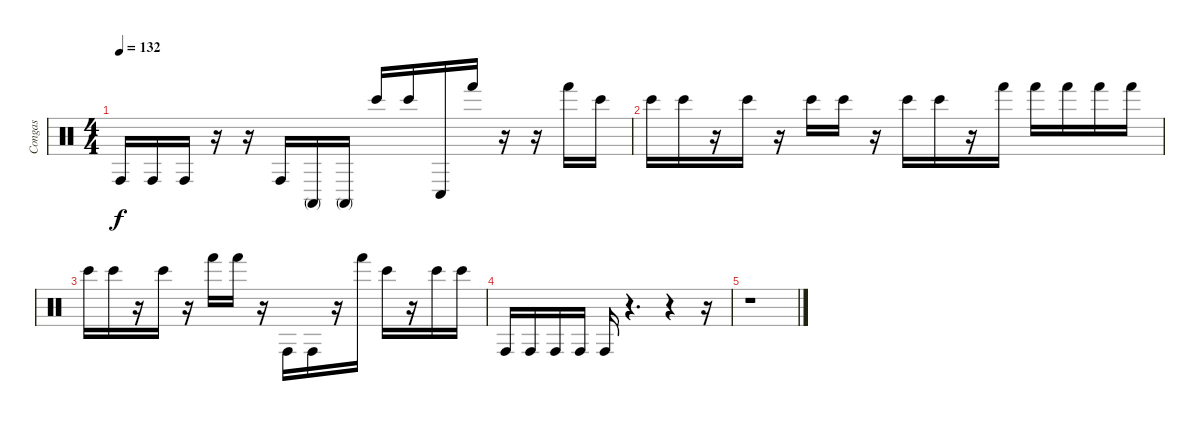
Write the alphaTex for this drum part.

\track ("Congas" "Congas") {instrument percussion}
\staff {score}
\articulation defaults
\ts (4 4)
\tempo 132
\clef neutral
\ks c "Conga high (hit)".16{dy f} "Conga high (hit)".16 "Conga high (hit)".16
r.16 r.16 "Conga high (hit)".16 "Conga high (mute)".16 "Conga high (mute)".16 "Bongo High (hit)".16 "Bongo High (hit)".16 "Conga low (hit)".16 "Hand (hit)".16 r.16 r.16 "Hand (hit)".16 "Bongo High (hit)".16 |
"Bongo High (hit)".16 "Bongo High (hit)".16 r.16 "Bongo High (hit)".16 r.16 "Bongo High (hit)".16 "Bongo High (hit)".16 r.16 "Bongo High (hit)".16 "Bongo High (hit)".16 r.16 "Hand (hit)".16 "Hand (hit)".16 "Hand (hit)".16 "Hand (hit)".16 "Hand (hit)".16 |
"Bongo High (hit)".16 "Bongo High (hit)".16 r.16 "Bongo High (hit)".16 r.16 "Hand (hit)".16 "Hand (hit)".16 r.16 "Conga high (hit)".16 "Conga high (hit)".16 r.16 "Hand (hit)".16 "Bongo High (hit)".16 r.16 "Bongo High (hit)".16 "Bongo High (hit)".16 |
"Conga high (hit)".16 "Conga high (hit)".16 "Conga high (hit)".16 "Conga high (hit)".16 "Conga high (hit)".16 r.4{d} r.4 r.16 |
r.1
